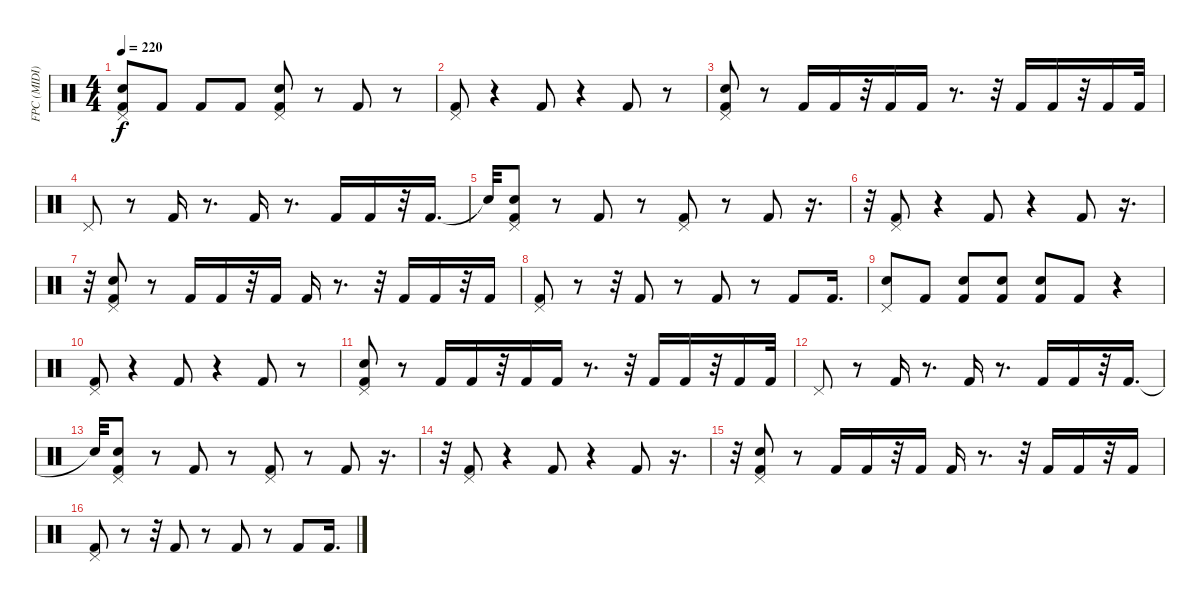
\track ("FPC (MIDI)" "FPC (MIDI)") {instrument percussion}
\staff {score}
\articulation defaults
\ts (4 4)
\tempo 220
\clef neutral
\ks c
("Kick (hit) 2" "Snare (hit) 2" "Pedal Hi-Hat (hit)").8{dy f} "Kick (hit) 2".8 "Kick (hit) 2".8 "Kick (hit) 2".8 ("Snare (hit) 2" "Pedal Hi-Hat (hit)" "Kick (hit) 2").8 r.8 "Kick (hit) 2".8 r.8 |
("Pedal Hi-Hat (hit)" "Kick (hit) 2").8 r.4 "Kick (hit) 2".8 r.4 "Kick (hit) 2".8 r.8 |
("Pedal Hi-Hat (hit)" "Snare (hit) 2" "Kick (hit) 2").8 r.8 "Kick (hit) 2".16 "Kick (hit) 2".16 r.32 "Kick (hit) 2".16 "Kick (hit) 2".16 r.8{d} r.32 "Kick (hit) 2".16 "Kick (hit) 2".16 r.32 "Kick (hit) 2".16 "Kick (hit) 2".32 |
"Pedal Hi-Hat (hit)".8 r.8 "Kick (hit) 2".16 r.8{d} "Kick (hit) 2".16 r.8{d} "Kick (hit) 2".16 "Kick (hit) 2".16 r.32 "Kick (hit) 2".16{d} |
"Snare (hit)"{t}.32 ("Kick (hit) 2" "Snare (hit) 2" "Pedal Hi-Hat (hit)").8 r.8 "Kick (hit) 2".8 r.8 ("Pedal Hi-Hat (hit)" "Kick (hit) 2").8 r.8 "Kick (hit) 2".8 r.16{d} |
r.32 ("Pedal Hi-Hat (hit)" "Kick (hit) 2").8 r.4 "Kick (hit) 2".8 r.4 "Kick (hit) 2".8 r.16{d} |
r.32 ("Snare (hit) 2" "Pedal Hi-Hat (hit)" "Kick (hit) 2").8 r.8 "Kick (hit) 2".16 "Kick (hit) 2".16 r.32 "Kick (hit) 2".16 "Kick (hit) 2".16 r.8{d} r.32 "Kick (hit) 2".16 "Kick (hit) 2".16 r.32 "Kick (hit) 2".16 |
("Pedal Hi-Hat (hit)" "Kick (hit) 2").8 r.8 r.32 "Kick (hit) 2".8 r.8 "Kick (hit) 2".8 r.8 "Kick (hit) 2".8 "Kick (hit) 2".16{d} |
("Pedal Hi-Hat (hit)" "Snare (hit) 2").8 "Kick (hit) 2".8 ("Snare (hit) 2" "Kick (hit) 2").8 ("Snare (hit) 2" "Kick (hit) 2").8 ("Snare (hit) 2" "Kick (hit) 2").8 "Kick (hit) 2".8 r.4 |
("Kick (hit) 2" "Pedal Hi-Hat (hit)").8 r.4 "Kick (hit) 2".8 r.4 "Kick (hit) 2".8 r.8 |
("Pedal Hi-Hat (hit)" "Snare (hit) 2" "Kick (hit) 2").8 r.8 "Kick (hit) 2".16 "Kick (hit) 2".16 r.32 "Kick (hit) 2".16 "Kick (hit) 2".16 r.8{d} r.32 "Kick (hit) 2".16 "Kick (hit) 2".16 r.32 "Kick (hit) 2".16 "Kick (hit) 2".32 |
"Pedal Hi-Hat (hit)".8 r.8 "Kick (hit) 2".16 r.8{d} "Kick (hit) 2".16 r.8{d} "Kick (hit) 2".16 "Kick (hit) 2".16 r.32 "Kick (hit) 2".16{d} |
"Snare (hit)"{t}.32 ("Kick (hit) 2" "Snare (hit) 2" "Pedal Hi-Hat (hit)").8 r.8 "Kick (hit) 2".8 r.8 ("Pedal Hi-Hat (hit)" "Kick (hit) 2").8 r.8 "Kick (hit) 2".8 r.16{d} |
r.32 ("Pedal Hi-Hat (hit)" "Kick (hit) 2").8 r.4 "Kick (hit) 2".8 r.4 "Kick (hit) 2".8 r.16{d} |
r.32 ("Snare (hit) 2" "Pedal Hi-Hat (hit)" "Kick (hit) 2").8 r.8 "Kick (hit) 2".16 "Kick (hit) 2".16 r.32 "Kick (hit) 2".16 "Kick (hit) 2".16 r.8{d} r.32 "Kick (hit) 2".16 "Kick (hit) 2".16 r.32 "Kick (hit) 2".16 |
("Pedal Hi-Hat (hit)" "Kick (hit) 2").8 r.8 r.32 "Kick (hit) 2".8 r.8 "Kick (hit) 2".8 r.8 "Kick (hit) 2".8 "Kick (hit) 2".16{d}
